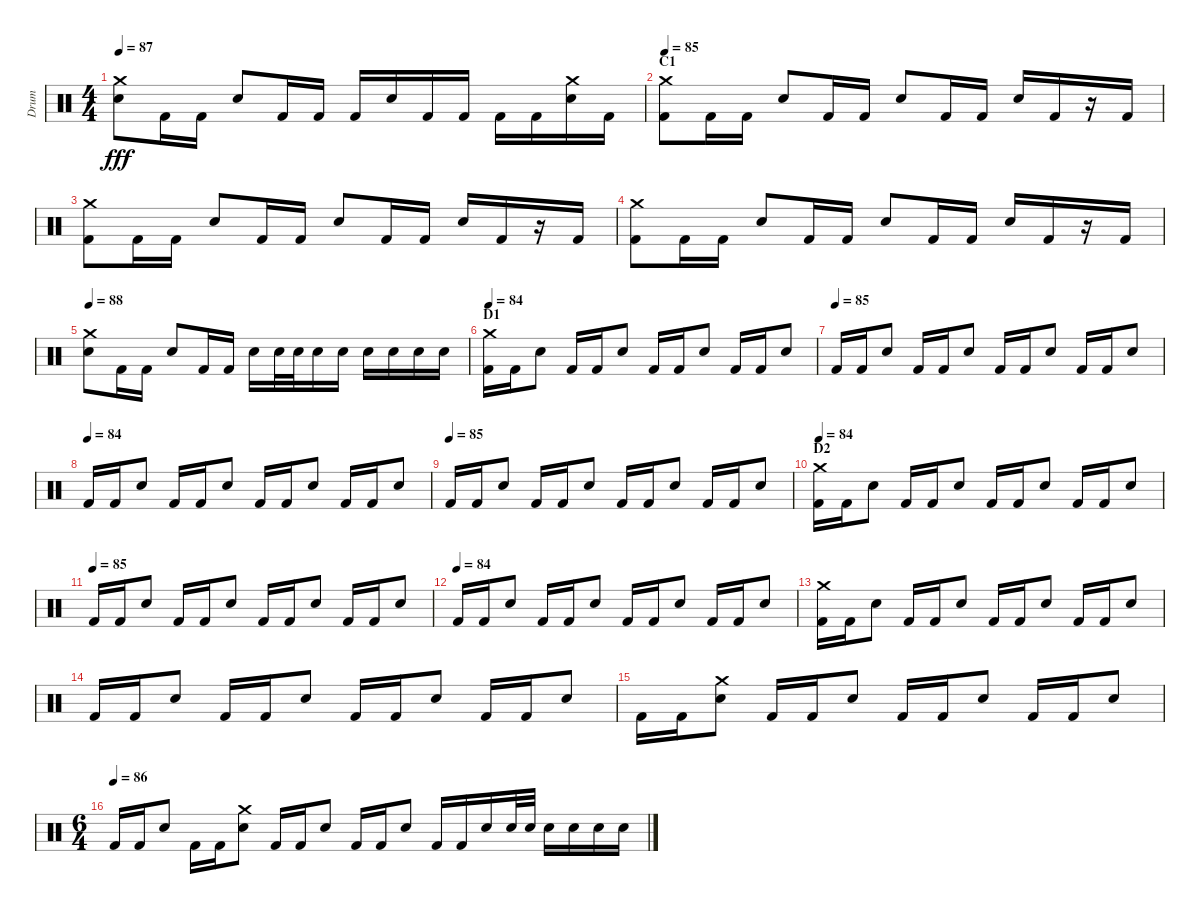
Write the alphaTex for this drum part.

\track ("Drum" "Drum") {instrument percussion}
\staff {score}
\articulation defaults
\ts (4 4)
\tempo 87
\clef neutral
\ks c
("Electric Snare (hit)" "Crash medium (hit)").8{dy fff} "Kick (hit) 2".16 "Kick (hit) 2".16 "Electric Snare (hit)".8 "Kick (hit) 2".16 "Kick (hit) 2".16 "Kick (hit) 2".16 "Electric Snare (hit)".16 "Kick (hit) 2".16 "Kick (hit) 2".16 "Kick (hit) 2".16 "Kick (hit) 2".16 ("Electric Snare (hit)" "Crash medium (hit)").16 "Kick (hit) 2".16 |
\section ("" "C1")
\tempo 85
("Kick (hit) 2" "Crash medium (hit)").8 "Kick (hit) 2".16 "Kick (hit) 2".16 "Electric Snare (hit)".8 "Kick (hit) 2".16 "Kick (hit) 2".16 "Electric Snare (hit)".8 "Kick (hit) 2".16 "Kick (hit) 2".16 "Electric Snare (hit)".16 "Kick (hit) 2".16 r.16 "Kick (hit) 2".16 |
("Kick (hit) 2" "Crash medium (hit)").8 "Kick (hit) 2".16 "Kick (hit) 2".16 "Electric Snare (hit)".8 "Kick (hit) 2".16 "Kick (hit) 2".16 "Electric Snare (hit)".8 "Kick (hit) 2".16 "Kick (hit) 2".16 "Electric Snare (hit)".16 "Kick (hit) 2".16 r.16 "Kick (hit) 2".16 |
("Kick (hit) 2" "Crash medium (hit)").8 "Kick (hit) 2".16 "Kick (hit) 2".16 "Electric Snare (hit)".8 "Kick (hit) 2".16 "Kick (hit) 2".16 "Electric Snare (hit)".8 "Kick (hit) 2".16 "Kick (hit) 2".16 "Electric Snare (hit)".16 "Kick (hit) 2".16 r.16 "Kick (hit) 2".16 |
\tempo 88
("Electric Snare (hit)" "Crash medium (hit)").8 "Kick (hit) 2".16 "Kick (hit) 2".16 "Electric Snare (hit)".8 "Kick (hit) 2".16 "Kick (hit) 2".16 "Electric Snare (hit)".16 "Electric Snare (hit)".32 "Electric Snare (hit)".32 "Electric Snare (hit)".16 "Electric Snare (hit)".16 "Electric Snare (hit)".16 "Electric Snare (hit)".16 "Electric Snare (hit)".16 "Electric Snare (hit)".16 |
\section ("" "D1")
\tempo 84
("Kick (hit) 2" "Crash medium (hit)").16 "Kick (hit) 2".16 "Electric Snare (hit)".8 "Kick (hit) 2".16 "Kick (hit) 2".16 "Electric Snare (hit)".8 "Kick (hit) 2".16 "Kick (hit) 2".16 "Electric Snare (hit)".8 "Kick (hit) 2".16 "Kick (hit) 2".16 "Electric Snare (hit)".8 |
\tempo (85)
"Kick (hit) 2".16 "Kick (hit) 2".16 "Electric Snare (hit)".8 "Kick (hit) 2".16 "Kick (hit) 2".16 "Electric Snare (hit)".8 "Kick (hit) 2".16 "Kick (hit) 2".16 "Electric Snare (hit)".8 "Kick (hit) 2".16 "Kick (hit) 2".16 "Electric Snare (hit)".8 |
\tempo (84)
"Kick (hit) 2".16 "Kick (hit) 2".16 "Electric Snare (hit)".8 "Kick (hit) 2".16 "Kick (hit) 2".16 "Electric Snare (hit)".8 "Kick (hit) 2".16 "Kick (hit) 2".16 "Electric Snare (hit)".8 "Kick (hit) 2".16 "Kick (hit) 2".16 "Electric Snare (hit)".8 |
\tempo (85)
"Kick (hit) 2".16 "Kick (hit) 2".16 "Electric Snare (hit)".8 "Kick (hit) 2".16 "Kick (hit) 2".16 "Electric Snare (hit)".8 "Kick (hit) 2".16 "Kick (hit) 2".16 "Electric Snare (hit)".8 "Kick (hit) 2".16 "Kick (hit) 2".16 "Electric Snare (hit)".8 |
\section ("" "D2")
\tempo 84
("Kick (hit) 2" "Crash medium (hit)").16 "Kick (hit) 2".16 "Electric Snare (hit)".8 "Kick (hit) 2".16 "Kick (hit) 2".16 "Electric Snare (hit)".8 "Kick (hit) 2".16 "Kick (hit) 2".16 "Electric Snare (hit)".8 "Kick (hit) 2".16 "Kick (hit) 2".16 "Electric Snare (hit)".8 |
\tempo (85)
"Kick (hit) 2".16 "Kick (hit) 2".16 "Electric Snare (hit)".8 "Kick (hit) 2".16 "Kick (hit) 2".16 "Electric Snare (hit)".8 "Kick (hit) 2".16 "Kick (hit) 2".16 "Electric Snare (hit)".8 "Kick (hit) 2".16 "Kick (hit) 2".16 "Electric Snare (hit)".8 |
\tempo (84)
"Kick (hit) 2".16 "Kick (hit) 2".16 "Electric Snare (hit)".8 "Kick (hit) 2".16 "Kick (hit) 2".16 "Electric Snare (hit)".8 "Kick (hit) 2".16 "Kick (hit) 2".16 "Electric Snare (hit)".8 "Kick (hit) 2".16 "Kick (hit) 2".16 "Electric Snare (hit)".8 |
("Kick (hit) 2" "Crash medium (hit)").16 "Kick (hit) 2".16 "Electric Snare (hit)".8 "Kick (hit) 2".16 "Kick (hit) 2".16 "Electric Snare (hit)".8 "Kick (hit) 2".16 "Kick (hit) 2".16 "Electric Snare (hit)".8 "Kick (hit) 2".16 "Kick (hit) 2".16 "Electric Snare (hit)".8 |
"Kick (hit) 2".16 "Kick (hit) 2".16 "Electric Snare (hit)".8 "Kick (hit) 2".16 "Kick (hit) 2".16 "Electric Snare (hit)".8 "Kick (hit) 2".16 "Kick (hit) 2".16 "Electric Snare (hit)".8 "Kick (hit) 2".16 "Kick (hit) 2".16 "Electric Snare (hit)".8 |
"Kick (hit) 2".16 "Kick (hit) 2".16 ("Electric Snare (hit)" "Crash medium (hit)").8 "Kick (hit) 2".16 "Kick (hit) 2".16 "Electric Snare (hit)".8 "Kick (hit) 2".16 "Kick (hit) 2".16 "Electric Snare (hit)".8 "Kick (hit) 2".16 "Kick (hit) 2".16 "Electric Snare (hit)".8 |
\ts (6 4)
\tempo (86)
"Kick (hit) 2".16 "Kick (hit) 2".16 "Electric Snare (hit)".8 "Kick (hit) 2".16 "Kick (hit) 2".16 ("Electric Snare (hit)" "Crash medium (hit)").8 "Kick (hit) 2".16 "Kick (hit) 2".16 "Electric Snare (hit)".8 "Kick (hit) 2".16 "Kick (hit) 2".16 "Electric Snare (hit)".8 "Kick (hit) 2".16 "Kick (hit) 2".16 "Electric Snare (hit)".16 "Electric Snare (hit)".32 "Electric Snare (hit)".32 "Electric Snare (hit)".16 "Electric Snare (hit)".16 "Electric Snare (hit)".16 "Electric Snare (hit)".16
